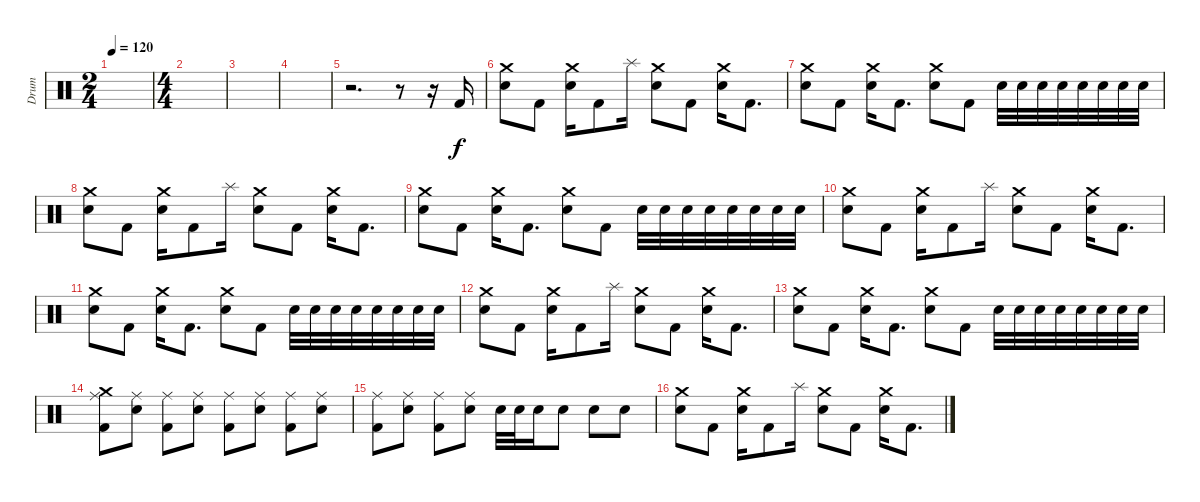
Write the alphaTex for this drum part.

\track ("Drum" "Drum") {instrument percussion}
\staff {score}
\articulation defaults
\ts (2 4)
\tempo 120
\clef neutral
\ks c
|
\ts (4 4)
|
|
|
r.2{d} r.8 r.16 "Kick (hit) 2".16 |
("Crash medium (hit)" "Electric Snare (hit)").8 "Kick (hit) 2".8 ("Crash medium (hit)" "Electric Snare (hit)").16 "Kick (hit) 2".8 "Splash (hit)".16 ("Crash medium (hit)" "Electric Snare (hit)").8 "Kick (hit) 2".8 ("Crash medium (hit)" "Electric Snare (hit)").16 "Kick (hit) 2".8{d} |
("Crash medium (hit)" "Electric Snare (hit)").8 "Kick (hit) 2".8 ("Crash medium (hit)" "Electric Snare (hit)").16 "Kick (hit) 2".8{d} ("Crash medium (hit)" "Electric Snare (hit)").8 "Kick (hit) 2".8 "Electric Snare (hit)".32 "Electric Snare (hit)".32 "Electric Snare (hit)".32 "Electric Snare (hit)".32 "Electric Snare (hit)".32 "Electric Snare (hit)".32 "Electric Snare (hit)".32 "Electric Snare (hit)".32 |
("Crash medium (hit)" "Electric Snare (hit)").8 "Kick (hit) 2".8 ("Crash medium (hit)" "Electric Snare (hit)").16 "Kick (hit) 2".8 "Splash (hit)".16 ("Crash medium (hit)" "Electric Snare (hit)").8 "Kick (hit) 2".8 ("Crash medium (hit)" "Electric Snare (hit)").16 "Kick (hit) 2".8{d} |
("Crash medium (hit)" "Electric Snare (hit)").8 "Kick (hit) 2".8 ("Crash medium (hit)" "Electric Snare (hit)").16 "Kick (hit) 2".8{d} ("Crash medium (hit)" "Electric Snare (hit)").8 "Kick (hit) 2".8 "Electric Snare (hit)".32 "Electric Snare (hit)".32 "Electric Snare (hit)".32 "Electric Snare (hit)".32 "Electric Snare (hit)".32 "Electric Snare (hit)".32 "Electric Snare (hit)".32 "Electric Snare (hit)".32 |
("Crash medium (hit)" "Electric Snare (hit)").8 "Kick (hit) 2".8 ("Crash medium (hit)" "Electric Snare (hit)").16 "Kick (hit) 2".8 "Splash (hit)".16 ("Crash medium (hit)" "Electric Snare (hit)").8 "Kick (hit) 2".8 ("Crash medium (hit)" "Electric Snare (hit)").16 "Kick (hit) 2".8{d} |
("Crash medium (hit)" "Electric Snare (hit)").8 "Kick (hit) 2".8 ("Crash medium (hit)" "Electric Snare (hit)").16 "Kick (hit) 2".8{d} ("Crash medium (hit)" "Electric Snare (hit)").8 "Kick (hit) 2".8 "Electric Snare (hit)".32 "Electric Snare (hit)".32 "Electric Snare (hit)".32 "Electric Snare (hit)".32 "Electric Snare (hit)".32 "Electric Snare (hit)".32 "Electric Snare (hit)".32 "Electric Snare (hit)".32 |
("Crash medium (hit)" "Electric Snare (hit)").8 "Kick (hit) 2".8 ("Crash medium (hit)" "Electric Snare (hit)").16 "Kick (hit) 2".8 "Splash (hit)".16 ("Crash medium (hit)" "Electric Snare (hit)").8 "Kick (hit) 2".8 ("Crash medium (hit)" "Electric Snare (hit)").16 "Kick (hit) 2".8{d} |
("Crash medium (hit)" "Electric Snare (hit)").8 "Kick (hit) 2".8 ("Crash medium (hit)" "Electric Snare (hit)").16 "Kick (hit) 2".8{d} ("Crash medium (hit)" "Electric Snare (hit)").8 "Kick (hit) 2".8 "Electric Snare (hit)".32 "Electric Snare (hit)".32 "Electric Snare (hit)".32 "Electric Snare (hit)".32 "Electric Snare (hit)".32 "Electric Snare (hit)".32 "Electric Snare (hit)".32 "Electric Snare (hit)".32 |
("Crash medium (hit)" "Ride (middle)" "Kick (hit) 2").8 ("Ride (middle)" "Electric Snare (hit)").8 ("Ride (middle)" "Kick (hit) 2").8 ("Ride (middle)" "Electric Snare (hit)").8 ("Ride (middle)" "Kick (hit) 2").8 ("Ride (middle)" "Electric Snare (hit)").8 ("Ride (middle)" "Kick (hit) 2").8 ("Ride (middle)" "Electric Snare (hit)").8 |
("Ride (middle)" "Kick (hit) 2").8 ("Ride (middle)" "Electric Snare (hit)").8 ("Ride (middle)" "Kick (hit) 2").8 ("Ride (middle)" "Electric Snare (hit)").8 "Electric Snare (hit)".32 "Electric Snare (hit)".32 "Electric Snare (hit)".16 "Electric Snare (hit)".8 "Electric Snare (hit)".8 "Electric Snare (hit)".8 |
("Crash medium (hit)" "Electric Snare (hit)").8 "Kick (hit) 2".8 ("Crash medium (hit)" "Electric Snare (hit)").16 "Kick (hit) 2".8 "Splash (hit)".16 ("Crash medium (hit)" "Electric Snare (hit)").8 "Kick (hit) 2".8 ("Crash medium (hit)" "Electric Snare (hit)").16 "Kick (hit) 2".8{d}
